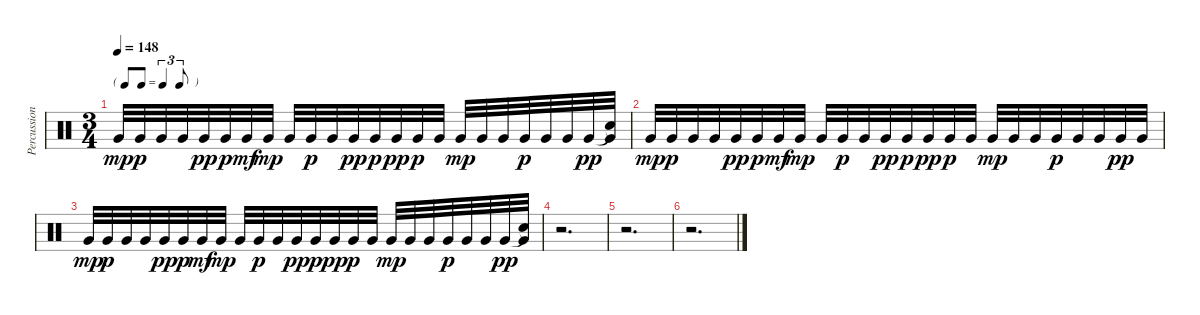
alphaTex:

\track ("Percussions" "Percussion") {instrument percussion}
\staff {score}
\articulation defaults
\ts (3 4)
\tf triplet8th
\tempo 148
\clef neutral
\ks c "Very Low Tom (hit)".32{dy mp} "Very Low Tom (hit)".32{dy p} "Very Low Tom (hit)".32 "Very Low Tom (hit)".32 "Very Low Tom (hit)".32{dy pp} "Very Low Tom (hit)".32{dy p} "Very Low Tom (hit)".32{dy mf} "Very Low Tom (hit)".32{dy mp} "Very Low Tom (hit)".32 "Very Low Tom (hit)".32{dy p} "Very Low Tom (hit)".32 "Very Low Tom (hit)".32{dy pp} "Very Low Tom (hit)".32{dy p} "Very Low Tom (hit)".32{dy pp} "Very Low Tom (hit)".32{dy p} "Very Low Tom (hit)".32 "Very Low Tom (hit)".32{dy mp} "Very Low Tom (hit)".32 "Very Low Tom (hit)".32 "Very Low Tom (hit)".32{dy p} "Very Low Tom (hit)".32 "Very Low Tom (hit)".32 "Very Low Tom (hit)".32{dy pp}
("Snare (hit)"{t} "Very Low Tom (hit)").32 |
"Very Low Tom (hit)".32{dy mp} "Very Low Tom (hit)".32{dy p} "Very Low Tom (hit)".32 "Very Low Tom (hit)".32 "Very Low Tom (hit)".32{dy pp} "Very Low Tom (hit)".32{dy p} "Very Low Tom (hit)".32{dy mf} "Very Low Tom (hit)".32{dy mp} "Very Low Tom (hit)".32 "Very Low Tom (hit)".32{dy p} "Very Low Tom (hit)".32 "Very Low Tom (hit)".32{dy pp} "Very Low Tom (hit)".32{dy p} "Very Low Tom (hit)".32{dy pp} "Very Low Tom (hit)".32{dy p} "Very Low Tom (hit)".32 "Very Low Tom (hit)".32{dy mp} "Very Low Tom (hit)".32 "Very Low Tom (hit)".32 "Very Low Tom (hit)".32{dy p} "Very Low Tom (hit)".32 "Very Low Tom (hit)".32 "Very Low Tom (hit)".32{dy pp} "Very Low Tom (hit)".32 |
"Very Low Tom (hit)".32{dy mp} "Very Low Tom (hit)".32{dy p} "Very Low Tom (hit)".32 "Very Low Tom (hit)".32 "Very Low Tom (hit)".32{dy pp} "Very Low Tom (hit)".32{dy p} "Very Low Tom (hit)".32{dy mf} "Very Low Tom (hit)".32{dy mp} "Very Low Tom (hit)".32 "Very Low Tom (hit)".32{dy p} "Very Low Tom (hit)".32 "Very Low Tom (hit)".32{dy pp} "Very Low Tom (hit)".32{dy p} "Very Low Tom (hit)".32{dy pp} "Very Low Tom (hit)".32{dy p} "Very Low Tom (hit)".32 "Very Low Tom (hit)".32{dy mp} "Very Low Tom (hit)".32 "Very Low Tom (hit)".32 "Very Low Tom (hit)".32{dy p} "Very Low Tom (hit)".32 "Very Low Tom (hit)".32 "Very Low Tom (hit)".32{dy pp} ("Snare (hit)"{t} "Very Low Tom (hit)").32 |
r.2{d} |
r.2{d} |
r.2{d}
